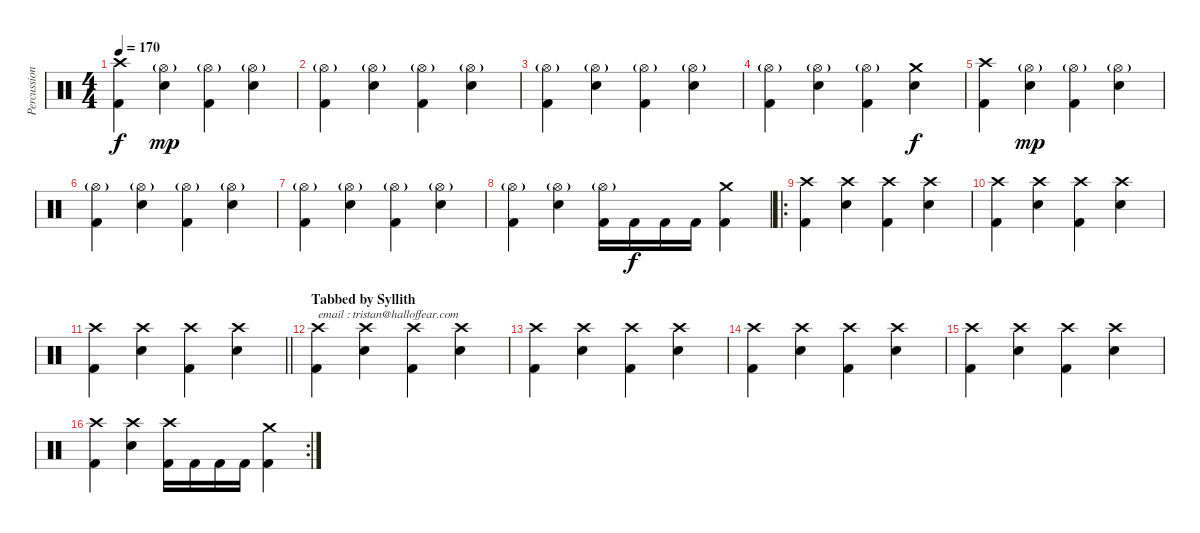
\track ("Percussions" "Percussion") {instrument percussion}
\staff {score}
\articulation defaults
\ts (4 4)
\tempo 170
\clef neutral
\ks c
("Crash high (hit)" "Kick (hit) 2").4{dy f} ("Hi-Hat (open)"{g} "Electric Snare (hit)").4{dy mp} ("Hi-Hat (open)"{g} "Kick (hit) 2").4 ("Hi-Hat (open)"{g} "Electric Snare (hit)").4 |
("Hi-Hat (open)"{g} "Kick (hit) 2").4 ("Hi-Hat (open)"{g} "Electric Snare (hit)").4 ("Hi-Hat (open)"{g} "Kick (hit) 2").4 ("Hi-Hat (open)"{g} "Electric Snare (hit)").4 |
("Hi-Hat (open)"{g} "Kick (hit) 2").4 ("Hi-Hat (open)"{g} "Electric Snare (hit)").4 ("Hi-Hat (open)"{g} "Kick (hit) 2").4 ("Hi-Hat (open)"{g} "Electric Snare (hit)").4 |
("Hi-Hat (open)"{g} "Kick (hit) 2").4 ("Hi-Hat (open)"{g} "Electric Snare (hit)").4 ("Hi-Hat (open)"{g} "Kick (hit) 2").4 ("Crash medium (hit)" "Electric Snare (hit)").4{dy f} |
("Crash high (hit)" "Kick (hit) 2").4 ("Hi-Hat (open)"{g} "Electric Snare (hit)").4{dy mp} ("Hi-Hat (open)"{g} "Kick (hit) 2").4 ("Hi-Hat (open)"{g} "Electric Snare (hit)").4 |
("Hi-Hat (open)"{g} "Kick (hit) 2").4 ("Hi-Hat (open)"{g} "Electric Snare (hit)").4 ("Hi-Hat (open)"{g} "Kick (hit) 2").4 ("Hi-Hat (open)"{g} "Electric Snare (hit)").4 |
("Hi-Hat (open)"{g} "Kick (hit) 2").4 ("Hi-Hat (open)"{g} "Electric Snare (hit)").4 ("Hi-Hat (open)"{g} "Kick (hit) 2").4 ("Hi-Hat (open)"{g} "Electric Snare (hit)").4 |
("Hi-Hat (open)"{g} "Kick (hit) 2").4 ("Hi-Hat (open)"{g} "Electric Snare (hit)").4 ("Hi-Hat (open)"{g} "Kick (hit) 2").16 "Kick (hit) 2".16{dy f} "Kick (hit) 2".16 "Kick (hit) 2".16 ("Crash medium (hit)" "Kick (hit) 2").4 |
\ro
("Crash high (hit)" "Kick (hit) 2").4 ("Crash high (hit)" "Electric Snare (hit)").4 ("Crash high (hit)" "Kick (hit) 2").4 ("Crash high (hit)" "Electric Snare (hit)").4 |
("Crash high (hit)" "Kick (hit) 2").4 ("Crash high (hit)" "Electric Snare (hit)").4 ("Crash high (hit)" "Kick (hit) 2").4 ("Crash high (hit)" "Electric Snare (hit)").4 |
\barLineRight lightlight
("Crash high (hit)" "Kick (hit) 2").4 ("Crash high (hit)" "Electric Snare (hit)").4 ("Crash high (hit)" "Kick (hit) 2").4 ("Crash high (hit)" "Electric Snare (hit)").4 |
\section ("" "Tabbed by Syllith")
("Crash high (hit)" "Kick (hit) 2").4{txt "email : tristan@halloffear.com"} ("Crash high (hit)" "Electric Snare (hit)").4 ("Crash high (hit)" "Kick (hit) 2").4 ("Crash high (hit)" "Electric Snare (hit)").4 |
("Crash high (hit)" "Kick (hit) 2").4 ("Crash high (hit)" "Electric Snare (hit)").4 ("Crash high (hit)" "Kick (hit) 2").4 ("Crash high (hit)" "Electric Snare (hit)").4 |
("Crash high (hit)" "Kick (hit) 2").4 ("Crash high (hit)" "Electric Snare (hit)").4 ("Crash high (hit)" "Kick (hit) 2").4 ("Crash high (hit)" "Electric Snare (hit)").4 |
("Crash high (hit)" "Kick (hit) 2").4 ("Crash high (hit)" "Electric Snare (hit)").4 ("Crash high (hit)" "Kick (hit) 2").4 ("Crash high (hit)" "Electric Snare (hit)").4 |
\rc 2
("Crash high (hit)" "Kick (hit) 2").4 ("Crash high (hit)" "Electric Snare (hit)").4 ("Crash high (hit)" "Kick (hit) 2").16 "Kick (hit) 2".16 "Kick (hit) 2".16 "Kick (hit) 2".16 ("Crash medium (hit)" "Kick (hit) 2").4{volume 0}
